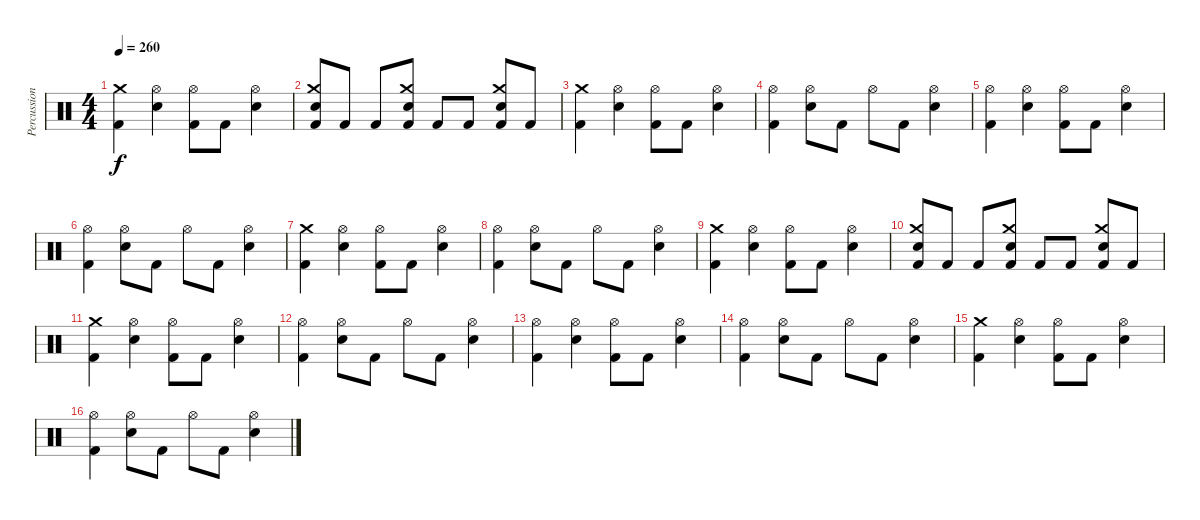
\track ("Percussion" "Percussion") {instrument percussion}
\staff {score}
\articulation defaults
\ts (4 4)
\tempo 260
\clef neutral
\ks c
("Kick (hit) 2" "Crash medium (hit)").4{dy f} ("Electric Snare (hit)" "Hi-Hat (open)").4 ("Kick (hit) 2" "Hi-Hat (open)").8 "Kick (hit) 2".8 ("Electric Snare (hit)" "Hi-Hat (open)").4 |
("Kick (hit) 2" "Electric Snare (hit)" "Crash medium (hit)").8 "Kick (hit) 2".8 "Kick (hit) 2".8 ("Kick (hit) 2" "Electric Snare (hit)" "Crash medium (hit)").8 "Kick (hit) 2".8 "Kick (hit) 2".8 ("Kick (hit) 2" "Electric Snare (hit)" "Crash medium (hit)").8 "Kick (hit) 2".8 |
("Kick (hit) 2" "Crash medium (hit)").4 ("Electric Snare (hit)" "Hi-Hat (open)").4 ("Kick (hit) 2" "Hi-Hat (open)").8 "Kick (hit) 2".8 ("Electric Snare (hit)" "Hi-Hat (open)").4 |
("Kick (hit) 2" "Hi-Hat (open)").4 ("Electric Snare (hit)" "Hi-Hat (open)").8 "Kick (hit) 2".8 "Hi-Hat (open)".8 "Kick (hit) 2".8 ("Electric Snare (hit)" "Hi-Hat (open)").4 |
("Kick (hit) 2" "Hi-Hat (open)").4 ("Electric Snare (hit)" "Hi-Hat (open)").4 ("Kick (hit) 2" "Hi-Hat (open)").8 "Kick (hit) 2".8 ("Electric Snare (hit)" "Hi-Hat (open)").4 |
("Kick (hit) 2" "Hi-Hat (open)").4 ("Electric Snare (hit)" "Hi-Hat (open)").8 "Kick (hit) 2".8 "Hi-Hat (open)".8 "Kick (hit) 2".8 ("Electric Snare (hit)" "Hi-Hat (open)").4 |
("Kick (hit) 2" "Crash medium (hit)").4 ("Electric Snare (hit)" "Hi-Hat (open)").4 ("Kick (hit) 2" "Hi-Hat (open)").8 "Kick (hit) 2".8 ("Electric Snare (hit)" "Hi-Hat (open)").4 |
("Kick (hit) 2" "Hi-Hat (open)").4 ("Electric Snare (hit)" "Hi-Hat (open)").8 "Kick (hit) 2".8 "Hi-Hat (open)".8 "Kick (hit) 2".8 ("Electric Snare (hit)" "Hi-Hat (open)").4 |
("Kick (hit) 2" "Crash medium (hit)").4 ("Electric Snare (hit)" "Hi-Hat (open)").4 ("Kick (hit) 2" "Hi-Hat (open)").8 "Kick (hit) 2".8 ("Electric Snare (hit)" "Hi-Hat (open)").4 |
("Kick (hit) 2" "Electric Snare (hit)" "Crash medium (hit)").8 "Kick (hit) 2".8 "Kick (hit) 2".8 ("Kick (hit) 2" "Electric Snare (hit)" "Crash medium (hit)").8 "Kick (hit) 2".8 "Kick (hit) 2".8 ("Kick (hit) 2" "Electric Snare (hit)" "Crash medium (hit)").8 "Kick (hit) 2".8 |
("Kick (hit) 2" "Crash medium (hit)").4 ("Electric Snare (hit)" "Hi-Hat (open)").4 ("Kick (hit) 2" "Hi-Hat (open)").8 "Kick (hit) 2".8 ("Electric Snare (hit)" "Hi-Hat (open)").4 |
("Kick (hit) 2" "Hi-Hat (open)").4 ("Electric Snare (hit)" "Hi-Hat (open)").8 "Kick (hit) 2".8 "Hi-Hat (open)".8 "Kick (hit) 2".8 ("Electric Snare (hit)" "Hi-Hat (open)").4 |
("Kick (hit) 2" "Hi-Hat (open)").4 ("Electric Snare (hit)" "Hi-Hat (open)").4 ("Kick (hit) 2" "Hi-Hat (open)").8 "Kick (hit) 2".8 ("Electric Snare (hit)" "Hi-Hat (open)").4 |
("Kick (hit) 2" "Hi-Hat (open)").4 ("Electric Snare (hit)" "Hi-Hat (open)").8 "Kick (hit) 2".8 "Hi-Hat (open)".8 "Kick (hit) 2".8 ("Electric Snare (hit)" "Hi-Hat (open)").4 |
("Kick (hit) 2" "Crash medium (hit)").4 ("Electric Snare (hit)" "Hi-Hat (open)").4 ("Kick (hit) 2" "Hi-Hat (open)").8 "Kick (hit) 2".8 ("Electric Snare (hit)" "Hi-Hat (open)").4 |
("Kick (hit) 2" "Hi-Hat (open)").4 ("Electric Snare (hit)" "Hi-Hat (open)").8 "Kick (hit) 2".8 "Hi-Hat (open)".8 "Kick (hit) 2".8 ("Electric Snare (hit)" "Hi-Hat (open)").4
